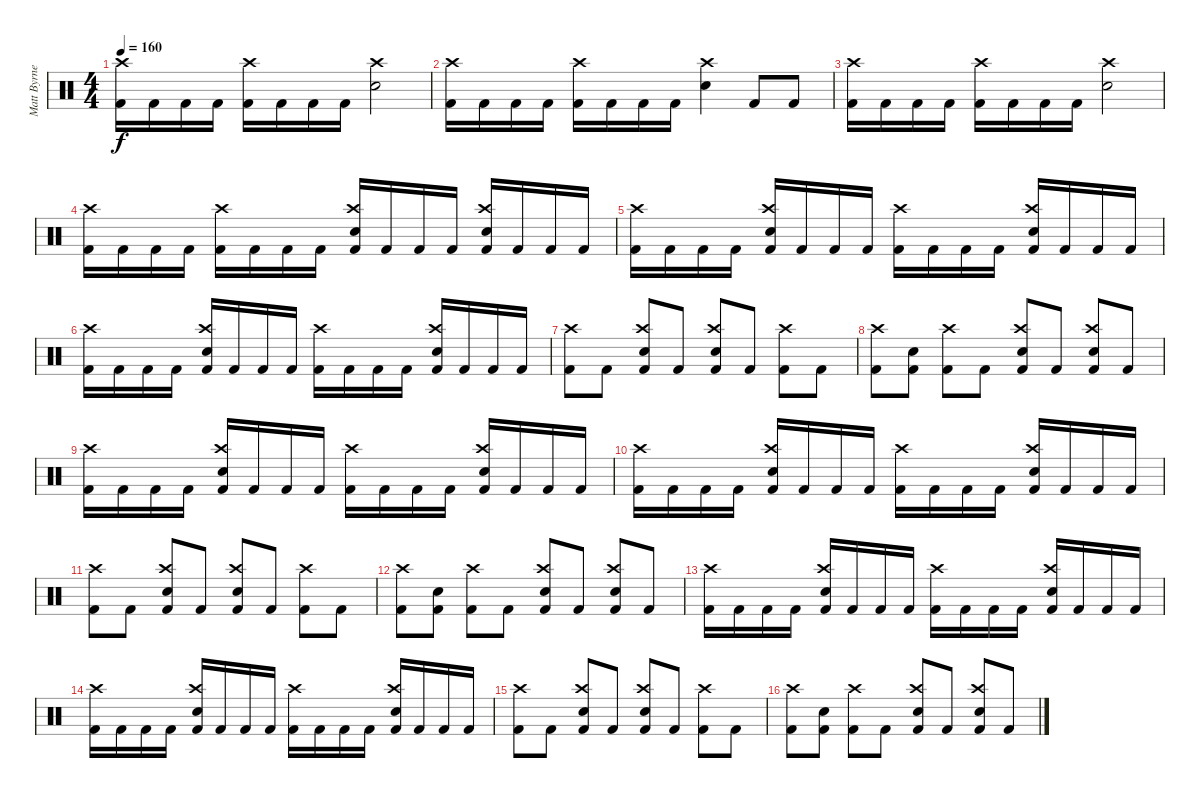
\track ("Matt Byrne" "Matt Byrne") {instrument percussion}
\staff {score}
\articulation defaults
\ts (4 4)
\tempo 160
\clef neutral
\ks c
("Kick (hit) 2" "Crash high (hit)").16{dy f} "Kick (hit) 2".16 "Kick (hit) 2".16 "Kick (hit) 2".16 ("Kick (hit) 2" "Crash high (hit)").16 "Kick (hit) 2".16 "Kick (hit) 2".16 "Kick (hit) 2".16 ("Crash high (hit)" "Snare (hit) 2").2 |
("Kick (hit) 2" "Crash high (hit)").16 "Kick (hit) 2".16 "Kick (hit) 2".16 "Kick (hit) 2".16 ("Kick (hit) 2" "Crash high (hit)").16 "Kick (hit) 2".16 "Kick (hit) 2".16 "Kick (hit) 2".16 ("Crash high (hit)" "Snare (hit) 2").4 "Kick (hit) 2".8 "Kick (hit) 2".8 |
("Kick (hit) 2" "Crash high (hit)").16 "Kick (hit) 2".16 "Kick (hit) 2".16 "Kick (hit) 2".16 ("Kick (hit) 2" "Crash high (hit)").16 "Kick (hit) 2".16 "Kick (hit) 2".16 "Kick (hit) 2".16 ("Crash high (hit)" "Snare (hit) 2").2 |
("Kick (hit) 2" "Crash high (hit)").16 "Kick (hit) 2".16 "Kick (hit) 2".16 "Kick (hit) 2".16 ("Kick (hit) 2" "Crash high (hit)").16 "Kick (hit) 2".16 "Kick (hit) 2".16 "Kick (hit) 2".16 ("Kick (hit) 2" "Snare (hit) 2" "Crash high (hit)").16 "Kick (hit) 2".16 "Kick (hit) 2".16 "Kick (hit) 2".16 ("Kick (hit) 2" "Snare (hit) 2" "Crash high (hit)").16 "Kick (hit) 2".16 "Kick (hit) 2".16 "Kick (hit) 2".16 |
\section ("" "")
("Kick (hit) 2" "Crash high (hit)").16 "Kick (hit) 2".16 "Kick (hit) 2".16 "Kick (hit) 2".16 ("Kick (hit) 2" "Snare (hit) 2" "Crash high (hit)").16 "Kick (hit) 2".16 "Kick (hit) 2".16 "Kick (hit) 2".16 ("Kick (hit) 2" "Crash high (hit)").16 "Kick (hit) 2".16 "Kick (hit) 2".16 "Kick (hit) 2".16 ("Kick (hit) 2" "Snare (hit) 2" "Crash high (hit)").16 "Kick (hit) 2".16 "Kick (hit) 2".16 "Kick (hit) 2".16 |
("Kick (hit) 2" "Crash high (hit)").16 "Kick (hit) 2".16 "Kick (hit) 2".16 "Kick (hit) 2".16 ("Kick (hit) 2" "Snare (hit) 2" "Crash high (hit)").16 "Kick (hit) 2".16 "Kick (hit) 2".16 "Kick (hit) 2".16 ("Kick (hit) 2" "Crash high (hit)").16 "Kick (hit) 2".16 "Kick (hit) 2".16 "Kick (hit) 2".16 ("Kick (hit) 2" "Snare (hit) 2" "Crash high (hit)").16 "Kick (hit) 2".16 "Kick (hit) 2".16 "Kick (hit) 2".16 |
("Kick (hit) 2" "Crash high (hit)").8 "Kick (hit) 2".8 ("Kick (hit) 2" "Snare (hit) 2" "Crash high (hit)").8 "Kick (hit) 2".8 ("Kick (hit) 2" "Snare (hit) 2" "Crash high (hit)").8 "Kick (hit) 2".8 ("Kick (hit) 2" "Crash high (hit)").8 "Kick (hit) 2".8 |
("Kick (hit) 2" "Crash high (hit)").8 ("Kick (hit) 2" "Snare (hit) 2").8 ("Kick (hit) 2" "Crash high (hit)").8 "Kick (hit) 2".8 ("Kick (hit) 2" "Snare (hit) 2" "Crash high (hit)").8 "Kick (hit) 2".8 ("Kick (hit) 2" "Snare (hit) 2" "Crash high (hit)").8 "Kick (hit) 2".8 |
("Kick (hit) 2" "Crash high (hit)").16 "Kick (hit) 2".16 "Kick (hit) 2".16 "Kick (hit) 2".16 ("Kick (hit) 2" "Snare (hit) 2" "Crash high (hit)").16 "Kick (hit) 2".16 "Kick (hit) 2".16 "Kick (hit) 2".16 ("Kick (hit) 2" "Crash high (hit)").16 "Kick (hit) 2".16 "Kick (hit) 2".16 "Kick (hit) 2".16 ("Kick (hit) 2" "Snare (hit) 2" "Crash high (hit)").16 "Kick (hit) 2".16 "Kick (hit) 2".16 "Kick (hit) 2".16 |
("Kick (hit) 2" "Crash high (hit)").16 "Kick (hit) 2".16 "Kick (hit) 2".16 "Kick (hit) 2".16 ("Kick (hit) 2" "Snare (hit) 2" "Crash high (hit)").16 "Kick (hit) 2".16 "Kick (hit) 2".16 "Kick (hit) 2".16 ("Kick (hit) 2" "Crash high (hit)").16 "Kick (hit) 2".16 "Kick (hit) 2".16 "Kick (hit) 2".16 ("Kick (hit) 2" "Snare (hit) 2" "Crash high (hit)").16 "Kick (hit) 2".16 "Kick (hit) 2".16 "Kick (hit) 2".16 |
("Kick (hit) 2" "Crash high (hit)").8 "Kick (hit) 2".8 ("Kick (hit) 2" "Snare (hit) 2" "Crash high (hit)").8 "Kick (hit) 2".8 ("Kick (hit) 2" "Snare (hit) 2" "Crash high (hit)").8 "Kick (hit) 2".8 ("Kick (hit) 2" "Crash high (hit)").8 "Kick (hit) 2".8 |
("Kick (hit) 2" "Crash high (hit)").8 ("Kick (hit) 2" "Snare (hit) 2").8 ("Kick (hit) 2" "Crash high (hit)").8 "Kick (hit) 2".8 ("Kick (hit) 2" "Snare (hit) 2" "Crash high (hit)").8 "Kick (hit) 2".8 ("Kick (hit) 2" "Snare (hit) 2" "Crash high (hit)").8 "Kick (hit) 2".8 |
("Kick (hit) 2" "Crash high (hit)").16 "Kick (hit) 2".16 "Kick (hit) 2".16 "Kick (hit) 2".16 ("Kick (hit) 2" "Snare (hit) 2" "Crash high (hit)").16 "Kick (hit) 2".16 "Kick (hit) 2".16 "Kick (hit) 2".16 ("Kick (hit) 2" "Crash high (hit)").16 "Kick (hit) 2".16 "Kick (hit) 2".16 "Kick (hit) 2".16 ("Kick (hit) 2" "Snare (hit) 2" "Crash high (hit)").16 "Kick (hit) 2".16 "Kick (hit) 2".16 "Kick (hit) 2".16 |
("Kick (hit) 2" "Crash high (hit)").16 "Kick (hit) 2".16 "Kick (hit) 2".16 "Kick (hit) 2".16 ("Kick (hit) 2" "Snare (hit) 2" "Crash high (hit)").16 "Kick (hit) 2".16 "Kick (hit) 2".16 "Kick (hit) 2".16 ("Kick (hit) 2" "Crash high (hit)").16 "Kick (hit) 2".16 "Kick (hit) 2".16 "Kick (hit) 2".16 ("Kick (hit) 2" "Snare (hit) 2" "Crash high (hit)").16 "Kick (hit) 2".16 "Kick (hit) 2".16 "Kick (hit) 2".16 |
("Kick (hit) 2" "Crash high (hit)").8 "Kick (hit) 2".8 ("Kick (hit) 2" "Snare (hit) 2" "Crash high (hit)").8 "Kick (hit) 2".8 ("Kick (hit) 2" "Snare (hit) 2" "Crash high (hit)").8 "Kick (hit) 2".8 ("Kick (hit) 2" "Crash high (hit)").8 "Kick (hit) 2".8 |
("Kick (hit) 2" "Crash high (hit)").8 ("Kick (hit) 2" "Snare (hit) 2").8 ("Kick (hit) 2" "Crash high (hit)").8 "Kick (hit) 2".8 ("Kick (hit) 2" "Snare (hit) 2" "Crash high (hit)").8 "Kick (hit) 2".8 ("Kick (hit) 2" "Snare (hit) 2" "Crash high (hit)").8 "Kick (hit) 2".8
